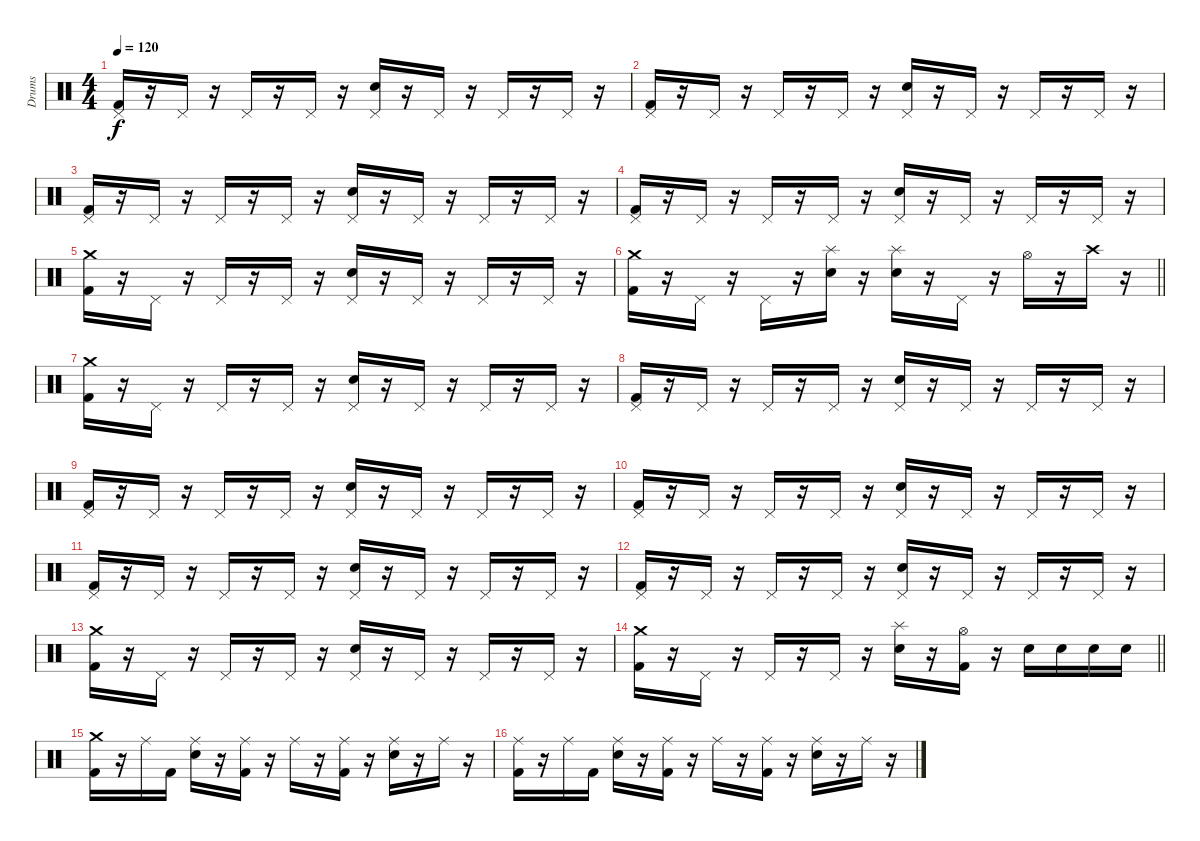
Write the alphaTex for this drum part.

\track ("Drums" "Drums") {instrument percussion}
\staff {score}
\articulation defaults
\ts (4 4)
\tempo 120
\clef neutral
\ks c
("Pedal Hi-Hat (hit)" "Kick (hit) 2").16{dy f} r.16 "Pedal Hi-Hat (hit)".16 r.16 "Pedal Hi-Hat (hit)".16 r.16 "Pedal Hi-Hat (hit)".16 r.16 ("Pedal Hi-Hat (hit)" "Electric Snare (hit)").16 r.16 "Pedal Hi-Hat (hit)".16 r.16 "Pedal Hi-Hat (hit)".16 r.16 "Pedal Hi-Hat (hit)".16 r.16 |
("Pedal Hi-Hat (hit)" "Kick (hit) 2").16 r.16 "Pedal Hi-Hat (hit)".16 r.16 "Pedal Hi-Hat (hit)".16 r.16 "Pedal Hi-Hat (hit)".16 r.16 ("Pedal Hi-Hat (hit)" "Electric Snare (hit)").16 r.16 "Pedal Hi-Hat (hit)".16 r.16 "Pedal Hi-Hat (hit)".16 r.16 "Pedal Hi-Hat (hit)".16 r.16 |
("Pedal Hi-Hat (hit)" "Kick (hit) 2").16 r.16 "Pedal Hi-Hat (hit)".16 r.16 "Pedal Hi-Hat (hit)".16 r.16 "Pedal Hi-Hat (hit)".16 r.16 ("Pedal Hi-Hat (hit)" "Electric Snare (hit)").16 r.16 "Pedal Hi-Hat (hit)".16 r.16 "Pedal Hi-Hat (hit)".16 r.16 "Pedal Hi-Hat (hit)".16 r.16 |
("Pedal Hi-Hat (hit)" "Kick (hit) 2").16 r.16 "Pedal Hi-Hat (hit)".16 r.16 "Pedal Hi-Hat (hit)".16 r.16 "Pedal Hi-Hat (hit)".16 r.16 ("Pedal Hi-Hat (hit)" "Electric Snare (hit)").16 r.16 "Pedal Hi-Hat (hit)".16 r.16 "Pedal Hi-Hat (hit)".16 r.16 "Pedal Hi-Hat (hit)".16 r.16 |
("Crash medium (hit)" "Kick (hit) 2").16 r.16 "Pedal Hi-Hat (hit)".16 r.16 "Pedal Hi-Hat (hit)".16 r.16 "Pedal Hi-Hat (hit)".16 r.16 ("Pedal Hi-Hat (hit)" "Electric Snare (hit)").16 r.16 "Pedal Hi-Hat (hit)".16 r.16 "Pedal Hi-Hat (hit)".16 r.16 "Pedal Hi-Hat (hit)".16 r.16 |
\barLineRight lightlight
("Crash medium (hit)" "Kick (hit) 2").16 r.16 "Pedal Hi-Hat (hit)".16 r.16 "Pedal Hi-Hat (hit)".16 r.16 ("Splash (hit)" "Electric Snare (hit)").16 r.16 ("Splash (hit)" "Electric Snare (hit)").16 r.16 "Pedal Hi-Hat (hit)".16 r.16 "Hi-Hat (open)".16 r.16 "Crash high (hit)".16 r.16 |
("Crash medium (hit)" "Kick (hit) 2").16 r.16 "Pedal Hi-Hat (hit)".16 r.16 "Pedal Hi-Hat (hit)".16 r.16 "Pedal Hi-Hat (hit)".16 r.16 ("Pedal Hi-Hat (hit)" "Electric Snare (hit)").16 r.16 "Pedal Hi-Hat (hit)".16 r.16 "Pedal Hi-Hat (hit)".16 r.16 "Pedal Hi-Hat (hit)".16 r.16 |
("Pedal Hi-Hat (hit)" "Kick (hit) 2").16 r.16 "Pedal Hi-Hat (hit)".16 r.16 "Pedal Hi-Hat (hit)".16 r.16 "Pedal Hi-Hat (hit)".16 r.16 ("Pedal Hi-Hat (hit)" "Electric Snare (hit)").16 r.16 "Pedal Hi-Hat (hit)".16 r.16 "Pedal Hi-Hat (hit)".16 r.16 "Pedal Hi-Hat (hit)".16 r.16 |
("Pedal Hi-Hat (hit)" "Kick (hit) 2").16 r.16 "Pedal Hi-Hat (hit)".16 r.16 "Pedal Hi-Hat (hit)".16 r.16 "Pedal Hi-Hat (hit)".16 r.16 ("Pedal Hi-Hat (hit)" "Electric Snare (hit)").16 r.16 "Pedal Hi-Hat (hit)".16 r.16 "Pedal Hi-Hat (hit)".16 r.16 "Pedal Hi-Hat (hit)".16 r.16 |
("Pedal Hi-Hat (hit)" "Kick (hit) 2").16 r.16 "Pedal Hi-Hat (hit)".16 r.16 "Pedal Hi-Hat (hit)".16 r.16 "Pedal Hi-Hat (hit)".16 r.16 ("Pedal Hi-Hat (hit)" "Electric Snare (hit)").16 r.16 "Pedal Hi-Hat (hit)".16 r.16 "Pedal Hi-Hat (hit)".16 r.16 "Pedal Hi-Hat (hit)".16 r.16 |
("Pedal Hi-Hat (hit)" "Kick (hit) 2").16 r.16 "Pedal Hi-Hat (hit)".16 r.16 "Pedal Hi-Hat (hit)".16 r.16 "Pedal Hi-Hat (hit)".16 r.16 ("Pedal Hi-Hat (hit)" "Electric Snare (hit)").16 r.16 "Pedal Hi-Hat (hit)".16 r.16 "Pedal Hi-Hat (hit)".16 r.16 "Pedal Hi-Hat (hit)".16 r.16 |
("Pedal Hi-Hat (hit)" "Kick (hit) 2").16 r.16 "Pedal Hi-Hat (hit)".16 r.16 "Pedal Hi-Hat (hit)".16 r.16 "Pedal Hi-Hat (hit)".16 r.16 ("Pedal Hi-Hat (hit)" "Electric Snare (hit)").16 r.16 "Pedal Hi-Hat (hit)".16 r.16 "Pedal Hi-Hat (hit)".16 r.16 "Pedal Hi-Hat (hit)".16 r.16 |
("Crash medium (hit)" "Kick (hit) 2").16 r.16 "Pedal Hi-Hat (hit)".16 r.16 "Pedal Hi-Hat (hit)".16 r.16 "Pedal Hi-Hat (hit)".16 r.16 ("Pedal Hi-Hat (hit)" "Electric Snare (hit)").16 r.16 "Pedal Hi-Hat (hit)".16 r.16 "Pedal Hi-Hat (hit)".16 r.16 "Pedal Hi-Hat (hit)".16 r.16 |
\barLineRight lightlight
("Crash medium (hit)" "Kick (hit) 2").16 r.16 "Pedal Hi-Hat (hit)".16 r.16 "Pedal Hi-Hat (hit)".16 r.16 "Pedal Hi-Hat (hit)".16 r.16 ("Splash (hit)" "Electric Snare (hit)").16 r.16 ("Hi-Hat (open)" "Kick (hit) 2").16 r.16 "Electric Snare (hit)".16 "Electric Snare (hit)".16 "Electric Snare (hit)".16 "Electric Snare (hit)".16 |
\section ("" "")
("Crash medium (hit)" "Kick (hit) 2").16 r.16 "Ride (middle)".16 "Kick (hit) 2".16 ("Ride (middle)" "Electric Snare (hit)").16 r.16 ("Ride (middle)" "Kick (hit) 2").16 r.16 "Ride (middle)".16 r.16 ("Ride (middle)" "Kick (hit) 2").16 r.16 ("Ride (middle)" "Electric Snare (hit)").16 r.16 "Ride (middle)".16 r.16 |
("Ride (middle)" "Kick (hit) 2").16 r.16 "Ride (middle)".16 "Kick (hit) 2".16 ("Ride (middle)" "Electric Snare (hit)").16 r.16 ("Ride (middle)" "Kick (hit) 2").16 r.16 "Ride (middle)".16 r.16 ("Ride (middle)" "Kick (hit) 2").16 r.16 ("Ride (middle)" "Electric Snare (hit)").16 r.16 "Ride (middle)".16 r.16
